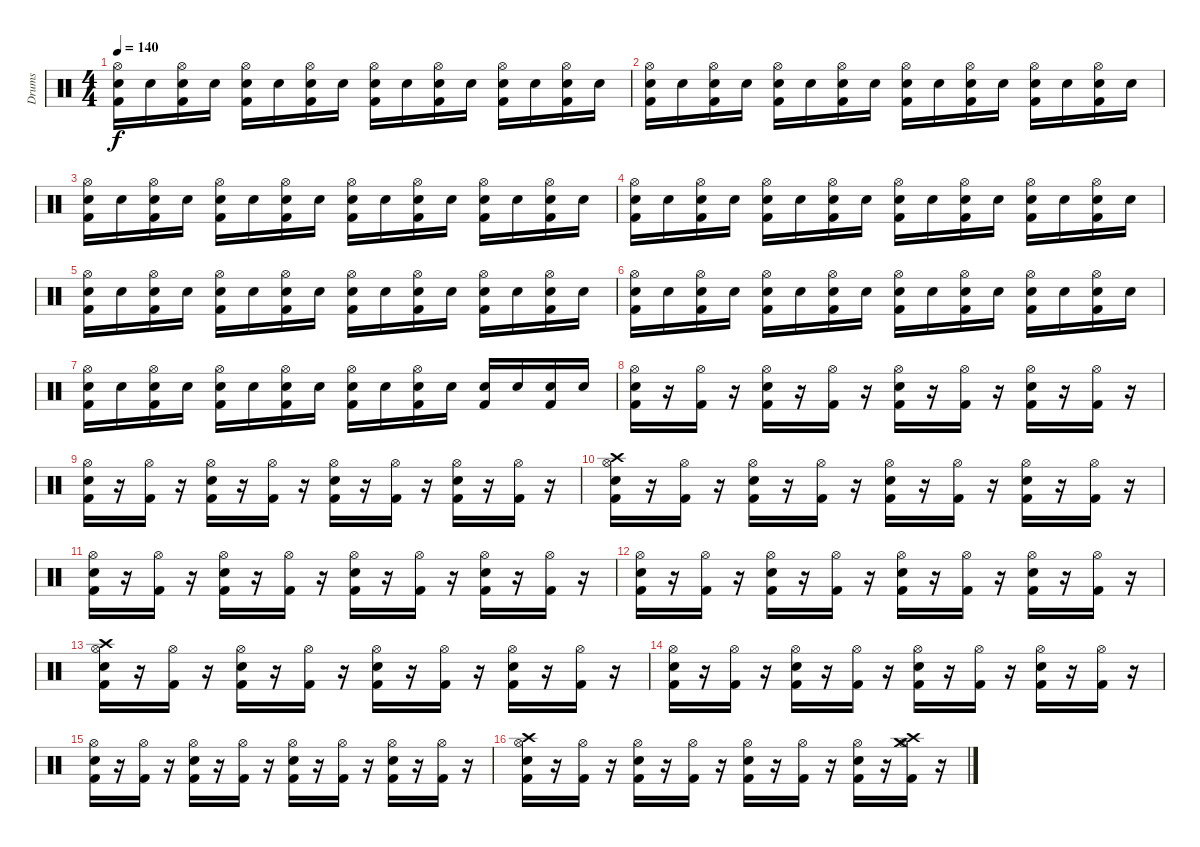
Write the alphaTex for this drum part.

\track ("Drums" "Drums") {instrument percussion}
\staff {score}
\articulation defaults
\ts (4 4)
\tempo 140
\clef neutral
\ks c
("Hi-Hat (open)" "Electric Snare (hit)" "Kick (hit) 2").16{dy f} "Electric Snare (hit)".16 ("Hi-Hat (open)" "Electric Snare (hit)" "Kick (hit) 2").16 "Electric Snare (hit)".16 ("Hi-Hat (open)" "Electric Snare (hit)" "Kick (hit) 2").16 "Electric Snare (hit)".16 ("Hi-Hat (open)" "Electric Snare (hit)" "Kick (hit) 2").16 "Electric Snare (hit)".16 ("Hi-Hat (open)" "Electric Snare (hit)" "Kick (hit) 2").16 "Electric Snare (hit)".16 ("Hi-Hat (open)" "Electric Snare (hit)" "Kick (hit) 2").16 "Electric Snare (hit)".16 ("Hi-Hat (open)" "Electric Snare (hit)" "Kick (hit) 2").16 "Electric Snare (hit)".16 ("Hi-Hat (open)" "Electric Snare (hit)" "Kick (hit) 2").16 "Electric Snare (hit)".16 |
("Hi-Hat (open)" "Electric Snare (hit)" "Kick (hit) 2").16 "Electric Snare (hit)".16 ("Hi-Hat (open)" "Electric Snare (hit)" "Kick (hit) 2").16 "Electric Snare (hit)".16 ("Hi-Hat (open)" "Electric Snare (hit)" "Kick (hit) 2").16 "Electric Snare (hit)".16 ("Hi-Hat (open)" "Electric Snare (hit)" "Kick (hit) 2").16 "Electric Snare (hit)".16 ("Hi-Hat (open)" "Electric Snare (hit)" "Kick (hit) 2").16 "Electric Snare (hit)".16 ("Hi-Hat (open)" "Electric Snare (hit)" "Kick (hit) 2").16 "Electric Snare (hit)".16 ("Hi-Hat (open)" "Electric Snare (hit)" "Kick (hit) 2").16 "Electric Snare (hit)".16 ("Hi-Hat (open)" "Electric Snare (hit)" "Kick (hit) 2").16 "Electric Snare (hit)".16 |
("Hi-Hat (open)" "Electric Snare (hit)" "Kick (hit) 2").16 "Electric Snare (hit)".16 ("Hi-Hat (open)" "Electric Snare (hit)" "Kick (hit) 2").16 "Electric Snare (hit)".16 ("Hi-Hat (open)" "Electric Snare (hit)" "Kick (hit) 2").16 "Electric Snare (hit)".16 ("Hi-Hat (open)" "Electric Snare (hit)" "Kick (hit) 2").16 "Electric Snare (hit)".16 ("Hi-Hat (open)" "Electric Snare (hit)" "Kick (hit) 2").16 "Electric Snare (hit)".16 ("Hi-Hat (open)" "Electric Snare (hit)" "Kick (hit) 2").16 "Electric Snare (hit)".16 ("Hi-Hat (open)" "Electric Snare (hit)" "Kick (hit) 2").16 "Electric Snare (hit)".16 ("Hi-Hat (open)" "Electric Snare (hit)" "Kick (hit) 2").16 "Electric Snare (hit)".16 |
("Hi-Hat (open)" "Electric Snare (hit)" "Kick (hit) 2").16 "Electric Snare (hit)".16 ("Hi-Hat (open)" "Electric Snare (hit)" "Kick (hit) 2").16 "Electric Snare (hit)".16 ("Hi-Hat (open)" "Electric Snare (hit)" "Kick (hit) 2").16 "Electric Snare (hit)".16 ("Hi-Hat (open)" "Electric Snare (hit)" "Kick (hit) 2").16 "Electric Snare (hit)".16 ("Hi-Hat (open)" "Electric Snare (hit)" "Kick (hit) 2").16 "Electric Snare (hit)".16 ("Hi-Hat (open)" "Electric Snare (hit)" "Kick (hit) 2").16 "Electric Snare (hit)".16 ("Hi-Hat (open)" "Electric Snare (hit)" "Kick (hit) 2").16 "Electric Snare (hit)".16 ("Hi-Hat (open)" "Electric Snare (hit)" "Kick (hit) 2").16 "Electric Snare (hit)".16 |
("Hi-Hat (open)" "Electric Snare (hit)" "Kick (hit) 2").16 "Electric Snare (hit)".16 ("Hi-Hat (open)" "Electric Snare (hit)" "Kick (hit) 2").16 "Electric Snare (hit)".16 ("Hi-Hat (open)" "Electric Snare (hit)" "Kick (hit) 2").16 "Electric Snare (hit)".16 ("Hi-Hat (open)" "Electric Snare (hit)" "Kick (hit) 2").16 "Electric Snare (hit)".16 ("Hi-Hat (open)" "Electric Snare (hit)" "Kick (hit) 2").16 "Electric Snare (hit)".16 ("Hi-Hat (open)" "Electric Snare (hit)" "Kick (hit) 2").16 "Electric Snare (hit)".16 ("Hi-Hat (open)" "Electric Snare (hit)" "Kick (hit) 2").16 "Electric Snare (hit)".16 ("Hi-Hat (open)" "Electric Snare (hit)" "Kick (hit) 2").16 "Electric Snare (hit)".16 |
("Hi-Hat (open)" "Electric Snare (hit)" "Kick (hit) 2").16 "Electric Snare (hit)".16 ("Hi-Hat (open)" "Electric Snare (hit)" "Kick (hit) 2").16 "Electric Snare (hit)".16 ("Hi-Hat (open)" "Electric Snare (hit)" "Kick (hit) 2").16 "Electric Snare (hit)".16 ("Hi-Hat (open)" "Electric Snare (hit)" "Kick (hit) 2").16 "Electric Snare (hit)".16 ("Hi-Hat (open)" "Electric Snare (hit)" "Kick (hit) 2").16 "Electric Snare (hit)".16 ("Hi-Hat (open)" "Electric Snare (hit)" "Kick (hit) 2").16 "Electric Snare (hit)".16 ("Hi-Hat (open)" "Electric Snare (hit)" "Kick (hit) 2").16 "Electric Snare (hit)".16 ("Hi-Hat (open)" "Electric Snare (hit)" "Kick (hit) 2").16 "Electric Snare (hit)".16 |
("Hi-Hat (open)" "Electric Snare (hit)" "Kick (hit) 2").16 "Electric Snare (hit)".16 ("Hi-Hat (open)" "Electric Snare (hit)" "Kick (hit) 2").16 "Electric Snare (hit)".16 ("Hi-Hat (open)" "Electric Snare (hit)" "Kick (hit) 2").16 "Electric Snare (hit)".16 ("Hi-Hat (open)" "Electric Snare (hit)" "Kick (hit) 2").16 "Electric Snare (hit)".16 ("Hi-Hat (open)" "Electric Snare (hit)" "Kick (hit) 2").16 "Electric Snare (hit)".16 ("Hi-Hat (open)" "Electric Snare (hit)" "Kick (hit) 2").16 "Electric Snare (hit)".16 ("Electric Snare (hit)" "Kick (hit) 2").16 "Electric Snare (hit)".16 ("Electric Snare (hit)" "Kick (hit) 2").16 "Electric Snare (hit)".16 |
("Hi-Hat (open)" "Electric Snare (hit)" "Kick (hit) 2").16 r.16 ("Hi-Hat (open)" "Kick (hit) 2").16 r.16 ("Hi-Hat (open)" "Electric Snare (hit)" "Kick (hit) 2").16 r.16 ("Hi-Hat (open)" "Kick (hit) 2").16 r.16 ("Hi-Hat (open)" "Electric Snare (hit)" "Kick (hit) 2").16 r.16 ("Hi-Hat (open)" "Kick (hit) 2").16 r.16 ("Hi-Hat (open)" "Electric Snare (hit)" "Kick (hit) 2").16 r.16 ("Hi-Hat (open)" "Kick (hit) 2").16 r.16 |
("Hi-Hat (open)" "Electric Snare (hit)" "Kick (hit) 2").16 r.16 ("Hi-Hat (open)" "Kick (hit) 2").16 r.16 ("Hi-Hat (open)" "Electric Snare (hit)" "Kick (hit) 2").16 r.16 ("Hi-Hat (open)" "Kick (hit) 2").16 r.16 ("Hi-Hat (open)" "Electric Snare (hit)" "Kick (hit) 2").16 r.16 ("Hi-Hat (open)" "Kick (hit) 2").16 r.16 ("Hi-Hat (open)" "Electric Snare (hit)" "Kick (hit) 2").16 r.16 ("Hi-Hat (open)" "Kick (hit) 2").16 r.16 |
("Hi-Hat (open)" "Electric Snare (hit)" "Crash high (hit)" "Kick (hit) 2").16 r.16 ("Hi-Hat (open)" "Kick (hit) 2").16 r.16 ("Hi-Hat (open)" "Electric Snare (hit)" "Kick (hit) 2").16 r.16 ("Hi-Hat (open)" "Kick (hit) 2").16 r.16 ("Hi-Hat (open)" "Electric Snare (hit)" "Kick (hit) 2").16 r.16 ("Hi-Hat (open)" "Kick (hit) 2").16 r.16 ("Hi-Hat (open)" "Electric Snare (hit)" "Kick (hit) 2").16 r.16 ("Hi-Hat (open)" "Kick (hit) 2").16 r.16 |
("Hi-Hat (open)" "Electric Snare (hit)" "Kick (hit) 2").16 r.16 ("Hi-Hat (open)" "Kick (hit) 2").16 r.16 ("Hi-Hat (open)" "Electric Snare (hit)" "Kick (hit) 2").16 r.16 ("Hi-Hat (open)" "Kick (hit) 2").16 r.16 ("Hi-Hat (open)" "Electric Snare (hit)" "Kick (hit) 2").16 r.16 ("Hi-Hat (open)" "Kick (hit) 2").16 r.16 ("Hi-Hat (open)" "Electric Snare (hit)" "Kick (hit) 2").16 r.16 ("Hi-Hat (open)" "Kick (hit) 2").16 r.16 |
("Hi-Hat (open)" "Electric Snare (hit)" "Kick (hit) 2").16 r.16 ("Hi-Hat (open)" "Kick (hit) 2").16 r.16 ("Hi-Hat (open)" "Electric Snare (hit)" "Kick (hit) 2").16 r.16 ("Hi-Hat (open)" "Kick (hit) 2").16 r.16 ("Hi-Hat (open)" "Electric Snare (hit)" "Kick (hit) 2").16 r.16 ("Hi-Hat (open)" "Kick (hit) 2").16 r.16 ("Hi-Hat (open)" "Electric Snare (hit)" "Kick (hit) 2").16 r.16 ("Hi-Hat (open)" "Kick (hit) 2").16 r.16 |
("Hi-Hat (open)" "Electric Snare (hit)" "Crash high (hit)" "Kick (hit) 2").16 r.16 ("Hi-Hat (open)" "Kick (hit) 2").16 r.16 ("Hi-Hat (open)" "Electric Snare (hit)" "Kick (hit) 2").16 r.16 ("Hi-Hat (open)" "Kick (hit) 2").16 r.16 ("Hi-Hat (open)" "Electric Snare (hit)" "Kick (hit) 2").16 r.16 ("Hi-Hat (open)" "Kick (hit) 2").16 r.16 ("Hi-Hat (open)" "Electric Snare (hit)" "Kick (hit) 2").16 r.16 ("Hi-Hat (open)" "Kick (hit) 2").16 r.16 |
("Hi-Hat (open)" "Electric Snare (hit)" "Kick (hit) 2").16 r.16 ("Hi-Hat (open)" "Kick (hit) 2").16 r.16 ("Hi-Hat (open)" "Electric Snare (hit)" "Kick (hit) 2").16 r.16 ("Hi-Hat (open)" "Kick (hit) 2").16 r.16 ("Hi-Hat (open)" "Electric Snare (hit)" "Kick (hit) 2").16 r.16 ("Hi-Hat (open)" "Kick (hit) 2").16 r.16 ("Hi-Hat (open)" "Electric Snare (hit)" "Kick (hit) 2").16 r.16 ("Hi-Hat (open)" "Kick (hit) 2").16 r.16 |
("Hi-Hat (open)" "Electric Snare (hit)" "Kick (hit) 2").16 r.16 ("Hi-Hat (open)" "Kick (hit) 2").16 r.16 ("Hi-Hat (open)" "Electric Snare (hit)" "Kick (hit) 2").16 r.16 ("Hi-Hat (open)" "Kick (hit) 2").16 r.16 ("Hi-Hat (open)" "Electric Snare (hit)" "Kick (hit) 2").16 r.16 ("Hi-Hat (open)" "Kick (hit) 2").16 r.16 ("Hi-Hat (open)" "Electric Snare (hit)" "Kick (hit) 2").16 r.16 ("Hi-Hat (open)" "Kick (hit) 2").16 r.16 |
("Hi-Hat (open)" "Electric Snare (hit)" "Crash high (hit)" "Kick (hit) 2").16 r.16 ("Hi-Hat (open)" "Kick (hit) 2").16 r.16 ("Hi-Hat (open)" "Electric Snare (hit)" "Kick (hit) 2").16 r.16 ("Hi-Hat (open)" "Kick (hit) 2").16 r.16 ("Hi-Hat (open)" "Electric Snare (hit)" "Kick (hit) 2").16 r.16 ("Hi-Hat (open)" "Kick (hit) 2").16 r.16 ("Hi-Hat (open)" "Electric Snare (hit)" "Kick (hit) 2").16 r.16 ("Hi-Hat (open)" "Crash medium (hit)" "Crash high (hit)" "Kick (hit) 2").16 r.16
